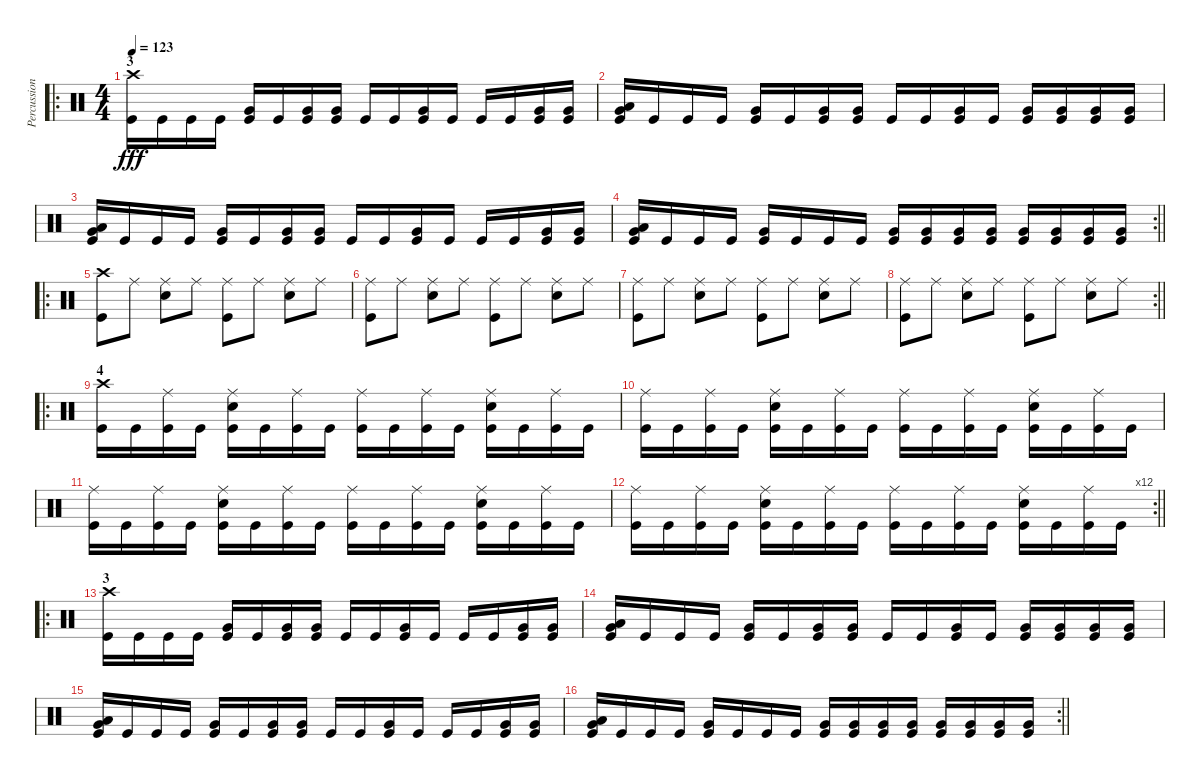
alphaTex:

\track ("Percussion" "Percussion") {instrument percussion}
\staff {score}
\articulation defaults
\ro
\ts (4 4)
\section ("" "3")
\tempo 123
\clef neutral
\ks c
("Crash high (hit)" "Kick (hit)").16{dy fff} "Kick (hit)".16 "Kick (hit)".16 "Kick (hit)".16 ("Very Low Tom (hit)" "Kick (hit)").16 "Kick (hit)".16 ("Very Low Tom (hit)" "Kick (hit)").16 ("Very Low Tom (hit)" "Kick (hit)").16 "Kick (hit)".16 "Kick (hit)".16 ("Very Low Tom (hit)" "Kick (hit)").16 "Kick (hit)".16 "Kick (hit)".16 "Kick (hit)".16 ("Very Low Tom (hit)" "Kick (hit)").16 ("Very Low Tom (hit)" "Kick (hit)").16 |
("Very Low Tom (hit)" "Low Tom (hit)" "Kick (hit)").16{bu 240} "Kick (hit)".16 "Kick (hit)".16 "Kick (hit)".16 ("Very Low Tom (hit)" "Kick (hit)").16 "Kick (hit)".16 ("Very Low Tom (hit)" "Kick (hit)").16 ("Very Low Tom (hit)" "Kick (hit)").16 "Kick (hit)".16 "Kick (hit)".16 ("Very Low Tom (hit)" "Kick (hit)").16 "Kick (hit)".16 ("Very Low Tom (hit)" "Kick (hit)").16 ("Very Low Tom (hit)" "Kick (hit)").16 ("Very Low Tom (hit)" "Kick (hit)").16 ("Very Low Tom (hit)" "Kick (hit)").16 |
("Very Low Tom (hit)" "Low Tom (hit)" "Kick (hit)").16{bu 240} "Kick (hit)".16 "Kick (hit)".16 "Kick (hit)".16 ("Very Low Tom (hit)" "Kick (hit)").16 "Kick (hit)".16 ("Very Low Tom (hit)" "Kick (hit)").16 ("Very Low Tom (hit)" "Kick (hit)").16 "Kick (hit)".16 "Kick (hit)".16 ("Very Low Tom (hit)" "Kick (hit)").16 "Kick (hit)".16 "Kick (hit)".16 "Kick (hit)".16 ("Very Low Tom (hit)" "Kick (hit)").16 ("Very Low Tom (hit)" "Kick (hit)").16 |
\rc 2
\barLineRight lightlight
("Very Low Tom (hit)" "Low Tom (hit)" "Kick (hit)").16{bu 240} "Kick (hit)".16 "Kick (hit)".16 "Kick (hit)".16 ("Very Low Tom (hit)" "Kick (hit)").16 "Kick (hit)".16 "Kick (hit)".16 "Kick (hit)".16 ("Very Low Tom (hit)" "Kick (hit)").16 ("Very Low Tom (hit)" "Kick (hit)").16 ("Very Low Tom (hit)" "Kick (hit)").16 ("Very Low Tom (hit)" "Kick (hit)").16 ("Very Low Tom (hit)" "Kick (hit)").16 ("Very Low Tom (hit)" "Kick (hit)").16 ("Very Low Tom (hit)" "Kick (hit)").16 ("Very Low Tom (hit)" "Kick (hit)").16 |
\ro
\section ("" "")
("Crash high (hit)" "Kick (hit)").8 "Ride (middle)".8 ("Ride (middle)" "Snare (hit) 2").8 "Ride (middle)".8 ("Ride (middle)" "Kick (hit)").8 "Ride (middle)".8 ("Ride (middle)" "Snare (hit) 2").8 "Ride (middle)".8 |
("Ride (middle)" "Kick (hit)").8 "Ride (middle)".8 ("Ride (middle)" "Snare (hit) 2").8 "Ride (middle)".8 ("Ride (middle)" "Kick (hit)").8 "Ride (middle)".8 ("Ride (middle)" "Snare (hit) 2").8 "Ride (middle)".8 |
("Ride (middle)" "Kick (hit)").8 "Ride (middle)".8 ("Ride (middle)" "Snare (hit) 2").8 "Ride (middle)".8 ("Ride (middle)" "Kick (hit)").8 "Ride (middle)".8 ("Ride (middle)" "Snare (hit) 2").8 "Ride (middle)".8 |
\rc 2
\barLineRight lightlight
("Ride (middle)" "Kick (hit)").8 "Ride (middle)".8 ("Ride (middle)" "Snare (hit) 2").8 "Ride (middle)".8 ("Ride (middle)" "Kick (hit)").8 "Ride (middle)".8 ("Ride (middle)" "Snare (hit) 2").8 "Ride (middle)".8 |
\ro
\section ("" "4")
("Crash high (hit)" "Kick (hit)").16 "Kick (hit)".16 ("Ride (middle)" "Kick (hit)").16 "Kick (hit)".16 ("Ride (middle)" "Snare (hit) 2" "Kick (hit)").16 "Kick (hit)".16 ("Ride (middle)" "Kick (hit)").16 "Kick (hit)".16 ("Ride (middle)" "Kick (hit)").16 "Kick (hit)".16 ("Ride (middle)" "Kick (hit)").16 "Kick (hit)".16 ("Ride (middle)" "Snare (hit) 2" "Kick (hit)").16 "Kick (hit)".16 ("Ride (middle)" "Kick (hit)").16 "Kick (hit)".16 |
("Ride (middle)" "Kick (hit)").16 "Kick (hit)".16 ("Ride (middle)" "Kick (hit)").16 "Kick (hit)".16 ("Ride (middle)" "Snare (hit) 2" "Kick (hit)").16 "Kick (hit)".16 ("Ride (middle)" "Kick (hit)").16 "Kick (hit)".16 ("Ride (middle)" "Kick (hit)").16 "Kick (hit)".16 ("Ride (middle)" "Kick (hit)").16 "Kick (hit)".16 ("Ride (middle)" "Snare (hit) 2" "Kick (hit)").16 "Kick (hit)".16 ("Ride (middle)" "Kick (hit)").16 "Kick (hit)".16 |
("Ride (middle)" "Kick (hit)").16 "Kick (hit)".16 ("Ride (middle)" "Kick (hit)").16 "Kick (hit)".16 ("Ride (middle)" "Snare (hit) 2" "Kick (hit)").16 "Kick (hit)".16 ("Ride (middle)" "Kick (hit)").16 "Kick (hit)".16 ("Ride (middle)" "Kick (hit)").16 "Kick (hit)".16 ("Ride (middle)" "Kick (hit)").16 "Kick (hit)".16 ("Ride (middle)" "Snare (hit) 2" "Kick (hit)").16 "Kick (hit)".16 ("Ride (middle)" "Kick (hit)").16 "Kick (hit)".16 |
\rc 12
\barLineRight lightlight
("Ride (middle)" "Kick (hit)").16 "Kick (hit)".16 ("Ride (middle)" "Kick (hit)").16 "Kick (hit)".16 ("Ride (middle)" "Snare (hit) 2" "Kick (hit)").16 "Kick (hit)".16 ("Ride (middle)" "Kick (hit)").16 "Kick (hit)".16 ("Ride (middle)" "Kick (hit)").16 "Kick (hit)".16 ("Ride (middle)" "Kick (hit)").16 "Kick (hit)".16 ("Ride (middle)" "Snare (hit) 2" "Kick (hit)").16 "Kick (hit)".16 ("Ride (middle)" "Kick (hit)").16 "Kick (hit)".16 |
\ro
\section ("" "3")
("Crash high (hit)" "Kick (hit)").16 "Kick (hit)".16 "Kick (hit)".16 "Kick (hit)".16 ("Very Low Tom (hit)" "Kick (hit)").16 "Kick (hit)".16 ("Very Low Tom (hit)" "Kick (hit)").16 ("Very Low Tom (hit)" "Kick (hit)").16 "Kick (hit)".16 "Kick (hit)".16 ("Very Low Tom (hit)" "Kick (hit)").16 "Kick (hit)".16 "Kick (hit)".16 "Kick (hit)".16 ("Very Low Tom (hit)" "Kick (hit)").16 ("Very Low Tom (hit)" "Kick (hit)").16 |
("Very Low Tom (hit)" "Low Tom (hit)" "Kick (hit)").16{bu 240} "Kick (hit)".16 "Kick (hit)".16 "Kick (hit)".16 ("Very Low Tom (hit)" "Kick (hit)").16 "Kick (hit)".16 ("Very Low Tom (hit)" "Kick (hit)").16 ("Very Low Tom (hit)" "Kick (hit)").16 "Kick (hit)".16 "Kick (hit)".16 ("Very Low Tom (hit)" "Kick (hit)").16 "Kick (hit)".16 ("Very Low Tom (hit)" "Kick (hit)").16 ("Very Low Tom (hit)" "Kick (hit)").16 ("Very Low Tom (hit)" "Kick (hit)").16 ("Very Low Tom (hit)" "Kick (hit)").16 |
("Very Low Tom (hit)" "Low Tom (hit)" "Kick (hit)").16{bu 240} "Kick (hit)".16 "Kick (hit)".16 "Kick (hit)".16 ("Very Low Tom (hit)" "Kick (hit)").16 "Kick (hit)".16 ("Very Low Tom (hit)" "Kick (hit)").16 ("Very Low Tom (hit)" "Kick (hit)").16 "Kick (hit)".16 "Kick (hit)".16 ("Very Low Tom (hit)" "Kick (hit)").16 "Kick (hit)".16 "Kick (hit)".16 "Kick (hit)".16 ("Very Low Tom (hit)" "Kick (hit)").16 ("Very Low Tom (hit)" "Kick (hit)").16 |
\rc 2
\barLineRight lightlight
("Very Low Tom (hit)" "Low Tom (hit)" "Kick (hit)").16{bu 240} "Kick (hit)".16 "Kick (hit)".16 "Kick (hit)".16 ("Very Low Tom (hit)" "Kick (hit)").16 "Kick (hit)".16 "Kick (hit)".16 "Kick (hit)".16 ("Very Low Tom (hit)" "Kick (hit)").16 ("Very Low Tom (hit)" "Kick (hit)").16 ("Very Low Tom (hit)" "Kick (hit)").16 ("Very Low Tom (hit)" "Kick (hit)").16 ("Very Low Tom (hit)" "Kick (hit)").16 ("Very Low Tom (hit)" "Kick (hit)").16 ("Very Low Tom (hit)" "Kick (hit)").16 ("Very Low Tom (hit)" "Kick (hit)").16
